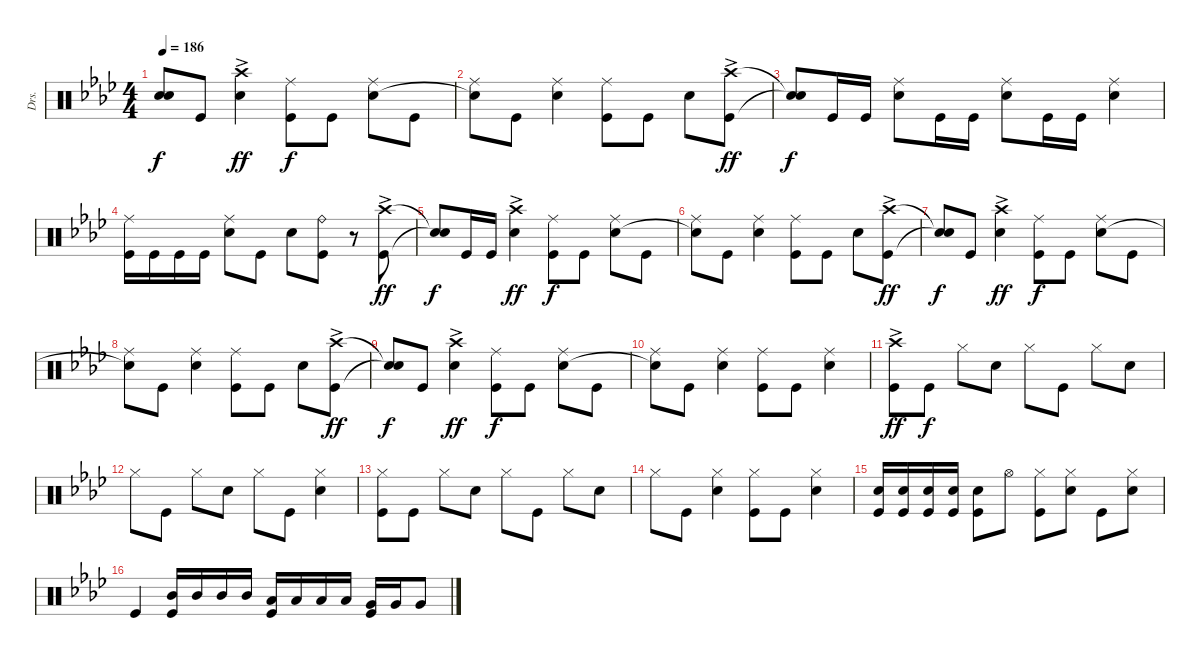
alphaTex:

\track ("Drs." "Drs.") {instrument percussion}
\staff {score}
\articulation defaults
\ts (4 4)
\tempo 186
\clef neutral
\ks ab
("Snare (hit)"{t} "Snare (hit)"{t}).8{dy f} "Kick (hit)".8 ("Crash high (hit)"{ac} "Snare (hit) 2").4{dy ff} ("Ride (middle)" "Kick (hit)").8{dy f} "Kick (hit)".8 ("Ride (middle)" "Snare (hit) 2").8 "Kick (hit)".8 |
("Ride (middle)" "Snare (hit)"{t}).8 "Kick (hit)".8 ("Ride (middle)" "Snare (hit) 2").4 ("Ride (middle)" "Kick (hit)").8 "Kick (hit)".8 "Snare (hit) 2".8 ("Crash high (hit)"{ac} "Kick (hit)").8{dy ff} |
("Snare (hit)"{t} "Snare (hit)"{t}).8{dy f} "Kick (hit)".16 "Kick (hit)".16 ("Ride (middle)" "Snare (hit) 2").8 "Kick (hit)".16 "Kick (hit)".16 ("Ride (middle)" "Snare (hit) 2").8 "Kick (hit)".16 "Kick (hit)".16 ("Ride (middle)" "Snare (hit) 2").4 |
("Ride (middle)" "Kick (hit)").16 "Kick (hit)".16 "Kick (hit)".16 "Kick (hit)".16 ("Ride (middle)" "Snare (hit) 2").8 "Kick (hit)".8 "Snare (hit) 2".8 ("Ride (bell)" "Kick (hit)").8 r.8 ("Crash high (hit)"{ac} "Kick (hit)").8{dy ff} |
("Snare (hit)"{t} "Snare (hit)"{t}).8{dy f} "Kick (hit)".16 "Kick (hit)".16 ("Crash high (hit)"{ac} "Snare (hit) 2").4{dy ff} ("Ride (middle)" "Kick (hit)").8{dy f} "Kick (hit)".8 ("Ride (middle)" "Snare (hit) 2").8 "Kick (hit)".8 |
("Ride (middle)" "Snare (hit)"{t}).8 "Kick (hit)".8 ("Ride (middle)" "Snare (hit) 2").4 ("Ride (middle)" "Kick (hit)").8 "Kick (hit)".8 "Snare (hit) 2".8 ("Crash high (hit)"{ac} "Kick (hit)").8{dy ff} |
("Snare (hit)"{t} "Snare (hit)"{t}).8{dy f} "Kick (hit)".8 ("Crash high (hit)"{ac} "Snare (hit) 2").4{dy ff} ("Ride (middle)" "Kick (hit)").8{dy f} "Kick (hit)".8 ("Ride (middle)" "Snare (hit) 2").8 "Kick (hit)".8 |
("Ride (middle)" "Snare (hit)"{t}).8 "Kick (hit)".8 ("Ride (middle)" "Snare (hit) 2").4 ("Ride (middle)" "Kick (hit)").8 "Kick (hit)".8 "Snare (hit) 2".8 ("Crash high (hit)"{ac} "Kick (hit)").8{dy ff} |
("Snare (hit)"{t} "Snare (hit)"{t}).8{dy f} "Kick (hit)".8 ("Crash high (hit)"{ac} "Snare (hit) 2").4{dy ff} ("Ride (middle)" "Kick (hit)").8{dy f} "Kick (hit)".8 ("Ride (middle)" "Snare (hit) 2").8 "Kick (hit)".8 |
("Ride (middle)" "Snare (hit)"{t}).8 "Kick (hit)".8 ("Ride (middle)" "Snare (hit) 2").4 ("Ride (middle)" "Kick (hit)").8 "Kick (hit)".8 ("Ride (middle)" "Snare (hit) 2").4 |
("Crash high (hit)"{ac} "Kick (hit)").8{dy ff} "Kick (hit)".8{dy f} "Hi-Hat (closed)".8 "Snare (hit) 2".8 "Hi-Hat (closed)".8 "Kick (hit)".8 "Hi-Hat (closed)".8 "Snare (hit) 2".8 |
"Hi-Hat (closed)".8 "Kick (hit)".8 "Hi-Hat (closed)".8 "Snare (hit) 2".8 "Hi-Hat (closed)".8 "Kick (hit)".8 ("Hi-Hat (closed)" "Snare (hit) 2").4 |
("Hi-Hat (closed)" "Kick (hit)").8 "Kick (hit)".8 "Hi-Hat (closed)".8 "Snare (hit) 2".8 "Hi-Hat (closed)".8 "Kick (hit)".8 "Hi-Hat (closed)".8 "Snare (hit) 2".8 |
"Hi-Hat (closed)".8 "Kick (hit)".8 ("Hi-Hat (closed)" "Snare (hit) 2").4 ("Hi-Hat (closed)" "Kick (hit)").8 "Kick (hit)".8 ("Hi-Hat (closed)" "Snare (hit) 2").4 |
("Snare (hit) 2" "Kick (hit)").16 ("Snare (hit) 2" "Kick (hit)").16 ("Snare (hit) 2" "Kick (hit)").16 ("Snare (hit) 2" "Kick (hit)").16 ("Snare (hit) 2" "Kick (hit)").8 "Hi-Hat (open)".8 ("Hi-Hat (closed)" "Kick (hit)").8 ("Hi-Hat (closed)" "Snare (hit) 2").8 "Kick (hit)".8 ("Hi-Hat (closed)" "Snare (hit) 2").8 |
"Kick (hit)".4 ("Mid Tom (hit)" "Kick (hit)").16 "Mid Tom (hit)".16 "Mid Tom (hit)".16 "Mid Tom (hit)".16 ("Low Tom (hit)" "Kick (hit)").16 "Low Tom (hit)".16 "Low Tom (hit)".16 "Low Tom (hit)".16 ("Very Low Tom (hit)" "Kick (hit)").16 "Very Low Tom (hit)".16 "Very Low Tom (hit)".8
